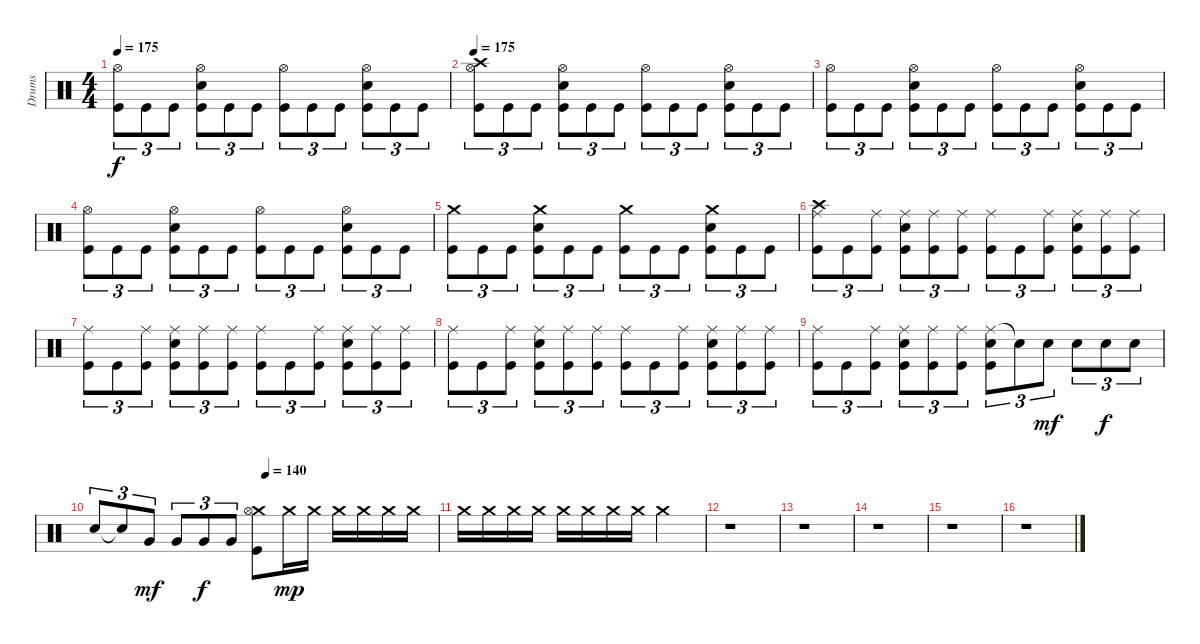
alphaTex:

\track ("Drums" "Drums") {instrument percussion}
\staff {score}
\articulation defaults
\ts (4 4)
\tempo 175
\clef neutral
\ks c
("Hi-Hat (open)" "Kick (hit)").8{tu (3 2) dy f} "Kick (hit)".8{tu (3 2)} "Kick (hit)".8{tu (3 2)} ("Hi-Hat (open)" "Electric Snare (hit)" "Kick (hit)").8{tu (3 2)} "Kick (hit)".8{tu (3 2)} "Kick (hit)".8{tu (3 2)} ("Hi-Hat (open)" "Kick (hit)").8{tu (3 2)} "Kick (hit)".8{tu (3 2)} "Kick (hit)".8{tu (3 2)} ("Hi-Hat (open)" "Electric Snare (hit)" "Kick (hit)").8{tu (3 2)} "Kick (hit)".8{tu (3 2)} "Kick (hit)".8{tu (3 2)} |
\tempo 175
("Crash high (hit)" "Hi-Hat (open)" "Kick (hit)").8{tu (3 2)} "Kick (hit)".8{tu (3 2)} "Kick (hit)".8{tu (3 2)} ("Hi-Hat (open)" "Electric Snare (hit)" "Kick (hit)").8{tu (3 2)} "Kick (hit)".8{tu (3 2)} "Kick (hit)".8{tu (3 2)} ("Hi-Hat (open)" "Kick (hit)").8{tu (3 2)} "Kick (hit)".8{tu (3 2)} "Kick (hit)".8{tu (3 2)} ("Hi-Hat (open)" "Electric Snare (hit)" "Kick (hit)").8{tu (3 2)} "Kick (hit)".8{tu (3 2)} "Kick (hit)".8{tu (3 2)} |
("Hi-Hat (open)" "Kick (hit)").8{tu (3 2)} "Kick (hit)".8{tu (3 2)} "Kick (hit)".8{tu (3 2)} ("Hi-Hat (open)" "Electric Snare (hit)" "Kick (hit)").8{tu (3 2)} "Kick (hit)".8{tu (3 2)} "Kick (hit)".8{tu (3 2)} ("Hi-Hat (open)" "Kick (hit)").8{tu (3 2)} "Kick (hit)".8{tu (3 2)} "Kick (hit)".8{tu (3 2)} ("Hi-Hat (open)" "Electric Snare (hit)" "Kick (hit)").8{tu (3 2)} "Kick (hit)".8{tu (3 2)} "Kick (hit)".8{tu (3 2)} |
("Hi-Hat (open)" "Kick (hit)").8{tu (3 2)} "Kick (hit)".8{tu (3 2)} "Kick (hit)".8{tu (3 2)} ("Hi-Hat (open)" "Electric Snare (hit)" "Kick (hit)").8{tu (3 2)} "Kick (hit)".8{tu (3 2)} "Kick (hit)".8{tu (3 2)} ("Hi-Hat (open)" "Kick (hit)").8{tu (3 2)} "Kick (hit)".8{tu (3 2)} "Kick (hit)".8{tu (3 2)} ("Hi-Hat (open)" "Electric Snare (hit)" "Kick (hit)").8{tu (3 2)} "Kick (hit)".8{tu (3 2)} "Kick (hit)".8{tu (3 2)} |
("Crash medium (hit)" "Kick (hit)").8{tu (3 2)} "Kick (hit)".8{tu (3 2)} "Kick (hit)".8{tu (3 2)} ("Crash medium (hit)" "Electric Snare (hit)" "Kick (hit)").8{tu (3 2)} "Kick (hit)".8{tu (3 2)} "Kick (hit)".8{tu (3 2)} ("Crash medium (hit)" "Kick (hit)").8{tu (3 2)} "Kick (hit)".8{tu (3 2)} "Kick (hit)".8{tu (3 2)} ("Crash medium (hit)" "Electric Snare (hit)" "Kick (hit)").8{tu (3 2)} "Kick (hit)".8{tu (3 2)} "Kick (hit)".8{tu (3 2)} |
("Crash high (hit)" "Ride (middle)" "Kick (hit)").8{tu (3 2)} "Kick (hit)".8{tu (3 2)} ("Ride (middle)" "Kick (hit)").8{tu (3 2)} ("Ride (middle)" "Electric Snare (hit)" "Kick (hit)").8{tu (3 2)} ("Ride (middle)" "Kick (hit)").8{tu (3 2)} ("Ride (middle)" "Kick (hit)").8{tu (3 2)} ("Ride (middle)" "Kick (hit)").8{tu (3 2)} "Kick (hit)".8{tu (3 2)} ("Ride (middle)" "Kick (hit)").8{tu (3 2)} ("Ride (middle)" "Electric Snare (hit)" "Kick (hit)").8{tu (3 2)} ("Ride (middle)" "Kick (hit)").8{tu (3 2)} ("Ride (middle)" "Kick (hit)").8{tu (3 2)} |
("Ride (middle)" "Kick (hit)").8{tu (3 2)} "Kick (hit)".8{tu (3 2)} ("Ride (middle)" "Kick (hit)").8{tu (3 2)} ("Ride (middle)" "Electric Snare (hit)" "Kick (hit)").8{tu (3 2)} ("Ride (middle)" "Kick (hit)").8{tu (3 2)} ("Ride (middle)" "Kick (hit)").8{tu (3 2)} ("Ride (middle)" "Kick (hit)").8{tu (3 2)} "Kick (hit)".8{tu (3 2)} ("Ride (middle)" "Kick (hit)").8{tu (3 2)} ("Ride (middle)" "Electric Snare (hit)" "Kick (hit)").8{tu (3 2)} ("Ride (middle)" "Kick (hit)").8{tu (3 2)} ("Ride (middle)" "Kick (hit)").8{tu (3 2)} |
("Ride (middle)" "Kick (hit)").8{tu (3 2)} "Kick (hit)".8{tu (3 2)} ("Ride (middle)" "Kick (hit)").8{tu (3 2)} ("Ride (middle)" "Electric Snare (hit)" "Kick (hit)").8{tu (3 2)} ("Ride (middle)" "Kick (hit)").8{tu (3 2)} ("Ride (middle)" "Kick (hit)").8{tu (3 2)} ("Ride (middle)" "Kick (hit)").8{tu (3 2)} "Kick (hit)".8{tu (3 2)} ("Ride (middle)" "Kick (hit)").8{tu (3 2)} ("Ride (middle)" "Electric Snare (hit)" "Kick (hit)").8{tu (3 2)} ("Ride (middle)" "Kick (hit)").8{tu (3 2)} ("Ride (middle)" "Kick (hit)").8{tu (3 2)} |
("Ride (middle)" "Kick (hit)").8{tu (3 2)} "Kick (hit)".8{tu (3 2)} ("Ride (middle)" "Kick (hit)").8{tu (3 2)} ("Ride (middle)" "Electric Snare (hit)" "Kick (hit)").8{tu (3 2)} ("Ride (middle)" "Kick (hit)").8{tu (3 2)} ("Ride (middle)" "Kick (hit)").8{tu (3 2)} ("Ride (middle)" "Electric Snare (hit)" "Kick (hit)").8{tu (3 2)} "Snare (hit)"{t}.8{tu (3 2)} "Electric Snare (hit)".8{tu (3 2) dy mf} "Electric Snare (hit)".8{tu (3 2)} "Electric Snare (hit)".8{tu (3 2) dy f} "Electric Snare (hit)".8{tu (3 2)} |
\tempo (140 0.5)
"Electric Snare (hit)".8{tu (3 2)} "Snare (hit)"{t}.8{tu (3 2)} "Very Low Tom (hit)".8{tu (3 2) dy mf} "Very Low Tom (hit)".8{tu (3 2)} "Very Low Tom (hit)".8{tu (3 2) dy f} "Very Low Tom (hit)".8{tu (3 2)} ("Crash medium (hit)" "Hi-Hat (open)" "Kick (hit)").8 "Crash medium (hit)".16{dy mp} "Crash medium (hit)".16 "Crash medium (hit)".16 "Crash medium (hit)".16 "Crash medium (hit)".16 "Crash medium (hit)".16 |
"Crash medium (hit)".16 "Crash medium (hit)".16 "Crash medium (hit)".16 "Crash medium (hit)".16 "Crash medium (hit)".16 "Crash medium (hit)".16 "Crash medium (hit)".16 "Crash medium (hit)".16 "Crash medium (hit)".2 |
r.1 |
r.1 |
r.1 |
r.1 |
r.1
